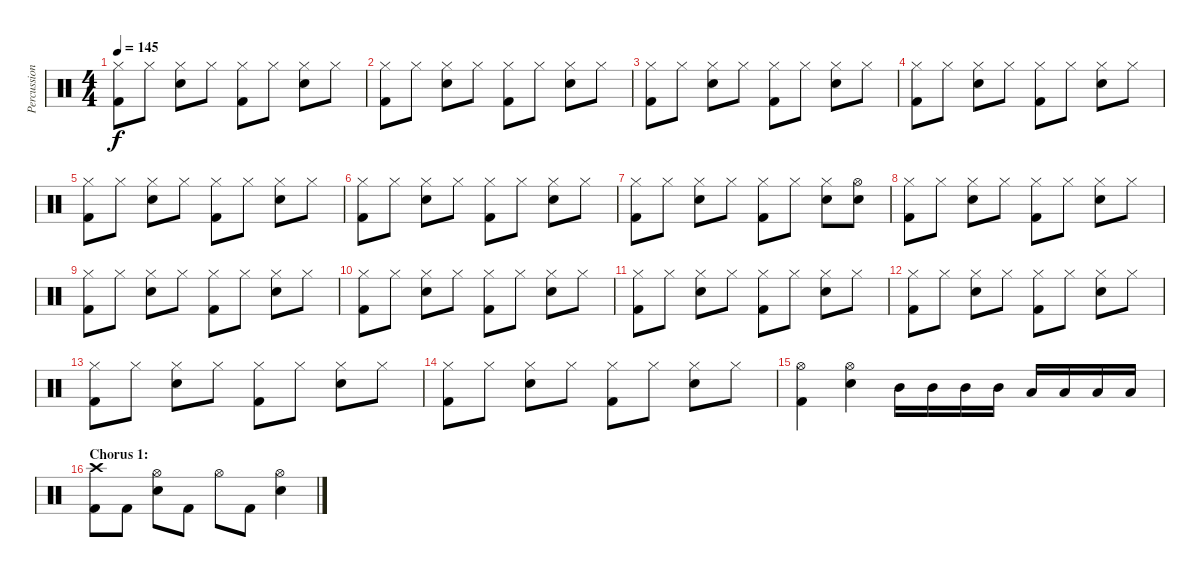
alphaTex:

\track ("Percussion" "Percussion") {instrument percussion}
\staff {score}
\articulation defaults
\ts (4 4)
\tempo 145
\clef neutral
\ks c
("Hi-Hat (closed)" "Kick (hit) 2").8{dy f} "Hi-Hat (closed)".8 ("Hi-Hat (closed)" "Snare (hit) 2").8 "Hi-Hat (closed)".8 ("Hi-Hat (closed)" "Kick (hit) 2").8 "Hi-Hat (closed)".8 ("Hi-Hat (closed)" "Snare (hit) 2").8 "Hi-Hat (closed)".8 |
("Hi-Hat (closed)" "Kick (hit) 2").8 "Hi-Hat (closed)".8 ("Hi-Hat (closed)" "Snare (hit) 2").8 "Hi-Hat (closed)".8 ("Hi-Hat (closed)" "Kick (hit) 2").8 "Hi-Hat (closed)".8 ("Hi-Hat (closed)" "Snare (hit) 2").8 "Hi-Hat (closed)".8 |
("Hi-Hat (closed)" "Kick (hit) 2").8 "Hi-Hat (closed)".8 ("Hi-Hat (closed)" "Snare (hit) 2").8 "Hi-Hat (closed)".8 ("Hi-Hat (closed)" "Kick (hit) 2").8 "Hi-Hat (closed)".8 ("Hi-Hat (closed)" "Snare (hit) 2").8 "Hi-Hat (closed)".8 |
("Hi-Hat (closed)" "Kick (hit) 2").8 "Hi-Hat (closed)".8 ("Hi-Hat (closed)" "Snare (hit) 2").8 "Hi-Hat (closed)".8 ("Hi-Hat (closed)" "Kick (hit) 2").8 "Hi-Hat (closed)".8 ("Hi-Hat (closed)" "Snare (hit) 2").8 "Hi-Hat (closed)".8 |
("Hi-Hat (closed)" "Kick (hit) 2").8 "Hi-Hat (closed)".8 ("Hi-Hat (closed)" "Snare (hit) 2").8 "Hi-Hat (closed)".8 ("Hi-Hat (closed)" "Kick (hit) 2").8 "Hi-Hat (closed)".8 ("Hi-Hat (closed)" "Snare (hit) 2").8 "Hi-Hat (closed)".8 |
("Hi-Hat (closed)" "Kick (hit) 2").8 "Hi-Hat (closed)".8 ("Hi-Hat (closed)" "Snare (hit) 2").8 "Hi-Hat (closed)".8 ("Hi-Hat (closed)" "Kick (hit) 2").8 "Hi-Hat (closed)".8 ("Hi-Hat (closed)" "Snare (hit) 2").8 "Hi-Hat (closed)".8 |
("Hi-Hat (closed)" "Kick (hit) 2").8 "Hi-Hat (closed)".8 ("Hi-Hat (closed)" "Snare (hit) 2").8 "Hi-Hat (closed)".8 ("Hi-Hat (closed)" "Kick (hit) 2").8 "Hi-Hat (closed)".8 ("Hi-Hat (closed)" "Snare (hit) 2").8 ("Hi-Hat (open)" "Snare (hit) 2").8 |
("Hi-Hat (closed)" "Kick (hit) 2").8 "Hi-Hat (closed)".8 ("Hi-Hat (closed)" "Snare (hit) 2").8 "Hi-Hat (closed)".8 ("Hi-Hat (closed)" "Kick (hit) 2").8 "Hi-Hat (closed)".8 ("Hi-Hat (closed)" "Snare (hit) 2").8 "Hi-Hat (closed)".8 |
("Hi-Hat (closed)" "Kick (hit) 2").8 "Hi-Hat (closed)".8 ("Hi-Hat (closed)" "Snare (hit) 2").8 "Hi-Hat (closed)".8 ("Hi-Hat (closed)" "Kick (hit) 2").8 "Hi-Hat (closed)".8 ("Hi-Hat (closed)" "Snare (hit) 2").8 "Hi-Hat (closed)".8 |
("Hi-Hat (closed)" "Kick (hit) 2").8 "Hi-Hat (closed)".8 ("Hi-Hat (closed)" "Snare (hit) 2").8 "Hi-Hat (closed)".8 ("Hi-Hat (closed)" "Kick (hit) 2").8 "Hi-Hat (closed)".8 ("Hi-Hat (closed)" "Snare (hit) 2").8 "Hi-Hat (closed)".8 |
("Hi-Hat (closed)" "Kick (hit) 2").8 "Hi-Hat (closed)".8 ("Hi-Hat (closed)" "Snare (hit) 2").8 "Hi-Hat (closed)".8 ("Hi-Hat (closed)" "Kick (hit) 2").8 "Hi-Hat (closed)".8 ("Hi-Hat (closed)" "Snare (hit) 2").8 "Hi-Hat (closed)".8 |
("Hi-Hat (closed)" "Kick (hit) 2").8 "Hi-Hat (closed)".8 ("Hi-Hat (closed)" "Snare (hit) 2").8 "Hi-Hat (closed)".8 ("Hi-Hat (closed)" "Kick (hit) 2").8 "Hi-Hat (closed)".8 ("Hi-Hat (closed)" "Snare (hit) 2").8 "Hi-Hat (closed)".8 |
("Hi-Hat (closed)" "Kick (hit) 2").8 "Hi-Hat (closed)".8 ("Hi-Hat (closed)" "Snare (hit) 2").8 "Hi-Hat (closed)".8 ("Hi-Hat (closed)" "Kick (hit) 2").8 "Hi-Hat (closed)".8 ("Hi-Hat (closed)" "Snare (hit) 2").8 "Hi-Hat (closed)".8 |
("Hi-Hat (closed)" "Kick (hit) 2").8 "Hi-Hat (closed)".8 ("Hi-Hat (closed)" "Snare (hit) 2").8 "Hi-Hat (closed)".8 ("Hi-Hat (closed)" "Kick (hit) 2").8 "Hi-Hat (closed)".8 ("Hi-Hat (closed)" "Snare (hit) 2").8 "Hi-Hat (closed)".8 |
("Hi-Hat (open)" "Kick (hit) 2").4 ("Hi-Hat (open)" "Snare (hit) 2").4 "Mid Tom (hit)".16 "Mid Tom (hit)".16 "Mid Tom (hit)".16 "Mid Tom (hit)".16 "Low Tom (hit)".16 "Low Tom (hit)".16 "Low Tom (hit)".16 "Low Tom (hit)".16 |
\section ("" "Chorus 1:")
("Crash high (hit)" "Kick (hit) 2").8 "Kick (hit) 2".8 ("Hi-Hat (open)" "Snare (hit) 2").8 "Kick (hit) 2".8 "Hi-Hat (open)".8 "Kick (hit) 2".8 ("Hi-Hat (open)" "Snare (hit) 2").4
